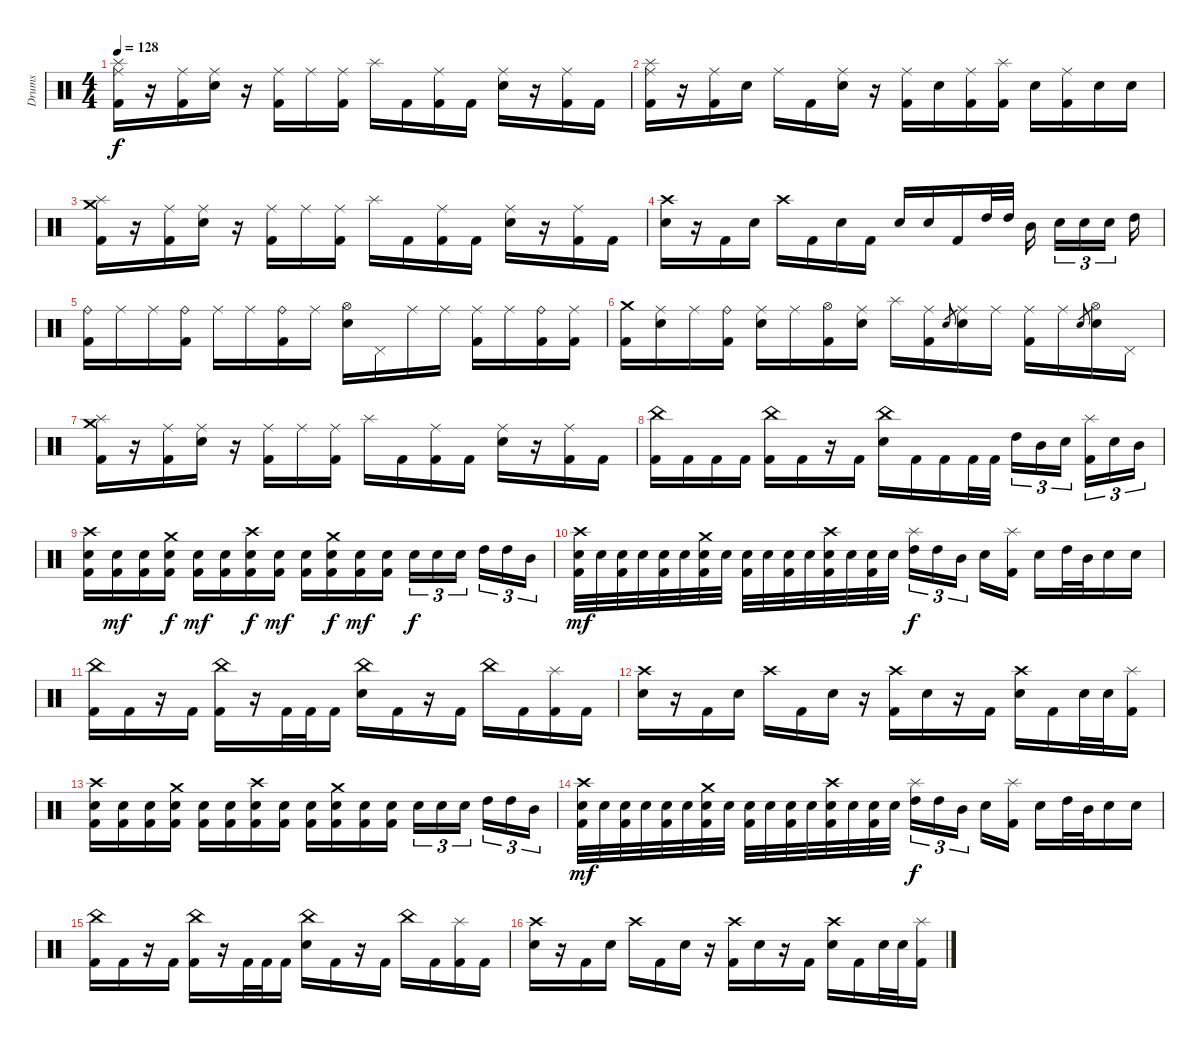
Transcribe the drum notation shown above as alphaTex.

\track ("Drums" "Drums") {instrument percussion}
\staff {score}
\articulation defaults
\ts (4 4)
\tempo 128
\clef neutral
\ks c
("Ride (middle)" "Splash (hit)" "Kick (hit) 2").16{dy f} r.16 ("Ride (middle)" "Kick (hit) 2").16 ("Ride (middle)" "Electric Snare (hit)").16 r.16 ("Ride (middle)" "Kick (hit) 2").16 "Ride (middle)".16 ("Ride (middle)" "Kick (hit) 2").16 "Splash (hit)".16 "Kick (hit) 2".16 ("Ride (middle)" "Kick (hit) 2").16 "Kick (hit) 2".16 ("Ride (middle)" "Electric Snare (hit)").16 r.16 ("Ride (middle)" "Kick (hit) 2").16 "Kick (hit) 2".16 |
("Ride (middle)" "Splash (hit)" "Kick (hit) 2").16 r.16 ("Ride (middle)" "Kick (hit) 2").16 "Electric Snare (hit)".16 "Ride (middle)".16 "Kick (hit) 2".16 ("Ride (middle)" "Electric Snare (hit)").16 r.16 ("Ride (middle)" "Kick (hit) 2").16 "Electric Snare (hit)".16 ("Ride (middle)" "Kick (hit) 2").16 ("Splash (hit)" "Kick (hit) 2").16 "Electric Snare (hit)".16 ("Ride (middle)" "Kick (hit) 2").16 "Electric Snare (hit)".16 "Electric Snare (hit)".16 |
("Crash medium (hit)" "Splash (hit)" "Kick (hit) 2").16 r.16 ("Ride (middle)" "Kick (hit) 2").16 ("Ride (middle)" "Electric Snare (hit)").16 r.16 ("Ride (middle)" "Kick (hit) 2").16 "Ride (middle)".16 ("Ride (middle)" "Kick (hit) 2").16 "Splash (hit)".16 "Kick (hit) 2".16 ("Ride (middle)" "Kick (hit) 2").16 "Kick (hit) 2".16 ("Ride (middle)" "Electric Snare (hit)").16 r.16 ("Ride (middle)" "Kick (hit) 2").16 "Kick (hit) 2".16 |
("Crash high (hit)" "Electric Snare (hit)").16 r.16 "Kick (hit) 2".16 "Electric Snare (hit)".16 "Crash high (hit)".16 "Kick (hit) 2".16 "Electric Snare (hit)".16 "Kick (hit) 2".16 "Electric Snare (hit)".16 "Electric Snare (hit)".16 "Kick (hit) 2".16 "High Tom (hit)".32 "High Tom (hit)".32 "Mid Tom (hit)".16 "Electric Snare (hit)".16{tu (3 2)} "Electric Snare (hit)".16{tu (3 2)} "Electric Snare (hit)".16{tu (3 2)} "High Tom (hit)".16 |
("Ride (bell)" "Kick (hit) 2").16 "Ride (middle)".16 "Ride (middle)".16 ("Ride (bell)" "Kick (hit) 2").16 "Ride (middle)".16 "Ride (middle)".16 ("Ride (bell)" "Kick (hit) 2").16 "Ride (middle)".16 ("Hi-Hat (open)" "Electric Snare (hit)").16 "Pedal Hi-Hat (hit)".16 "Ride (middle)".16 "Ride (middle)".16 ("Ride (middle)" "Kick (hit) 2").16 "Ride (middle)".16 ("Ride (bell)" "Kick (hit) 2").16 ("Ride (middle)" "Kick (hit) 2").16 |
("Crash medium (hit)" "Kick (hit) 2").16 ("Ride (middle)" "Electric Snare (hit)").16 "Ride (middle)".16 ("Ride (bell)" "Kick (hit) 2").16 ("Ride (middle)" "Electric Snare (hit)").16 "Ride (middle)".16 ("Hi-Hat (open)" "Kick (hit) 2").16 ("Ride (middle)" "Electric Snare (hit)").16 "Splash (hit)".16 ("Ride (middle)" "Kick (hit) 2").16 "Electric Snare (hit)"{h}.8{gr} ("Ride (middle)" "Electric Snare (hit)").16 "Ride (middle)".16 ("Ride (middle)" "Kick (hit) 2").16 "Ride (middle)".16 "Electric Snare (hit)"{h}.8{gr} ("Hi-Hat (open)" "Electric Snare (hit)").16 "Pedal Hi-Hat (hit)".16 |
("Crash medium (hit)" "Splash (hit)" "Kick (hit) 2").16 r.16 ("Ride (middle)" "Kick (hit) 2").16 ("Ride (middle)" "Electric Snare (hit)").16 r.16 ("Ride (middle)" "Kick (hit) 2").16 "Ride (middle)".16 ("Ride (middle)" "Kick (hit) 2").16 "Splash (hit)".16 "Kick (hit) 2".16 ("Ride (middle)" "Kick (hit) 2").16 "Kick (hit) 2".16 ("Ride (middle)" "Electric Snare (hit)").16 r.16 ("Ride (middle)" "Kick (hit) 2").16 "Kick (hit) 2".16 |
("China (hit)" "Kick (hit) 2").16 "Kick (hit) 2".16 "Kick (hit) 2".16 "Kick (hit) 2".16 ("China (hit)" "Kick (hit) 2").16 "Kick (hit) 2".16 r.16 "Kick (hit) 2".16 ("China (hit)" "Electric Snare (hit)").16 "Kick (hit) 2".16 "Kick (hit) 2".16 "Kick (hit) 2".32 "Kick (hit) 2".32 "High Tom (hit)".16{tu (3 2)} "Mid Tom (hit)".16{tu (3 2)} "Electric Snare (hit)".16{tu (3 2)} ("Splash (hit)" "Kick (hit) 2").16{tu (3 2)} "Electric Snare (hit)".16{tu (3 2)} "Mid Tom (hit)".16{tu (3 2)} |
("Crash high (hit)" "Electric Snare (hit)" "Kick (hit) 2").16 ("Electric Snare (hit)" "Kick (hit) 2").16{dy mf} ("Electric Snare (hit)" "Kick (hit) 2").16 ("Crash medium (hit)" "Electric Snare (hit)" "Kick (hit) 2").16{dy f} ("Electric Snare (hit)" "Kick (hit) 2").16{dy mf} ("Electric Snare (hit)" "Kick (hit) 2").16 ("Crash high (hit)" "Electric Snare (hit)" "Kick (hit) 2").16{dy f} ("Electric Snare (hit)" "Kick (hit) 2").16{dy mf} ("Electric Snare (hit)" "Kick (hit) 2").16 ("Crash medium (hit)" "Electric Snare (hit)" "Kick (hit) 2").16{dy f} ("Electric Snare (hit)" "Kick (hit) 2").16{dy mf} ("Electric Snare (hit)" "Kick (hit) 2").16 "Electric Snare (hit)".16{tu (3 2) dy f} "Electric Snare (hit)".16{tu (3 2)} "Electric Snare (hit)".16{tu (3 2)} "High Tom (hit)".16{tu (3 2)} "High Tom (hit)".16{tu (3 2)} "Mid Tom (hit)".16{tu (3 2)} |
("Crash high (hit)" "Electric Snare (hit)" "Kick (hit) 2").32{dy mf} "Electric Snare (hit)".32 ("Electric Snare (hit)" "Kick (hit) 2").32 "Electric Snare (hit)".32 ("Electric Snare (hit)" "Kick (hit) 2").32 "Electric Snare (hit)".32 ("Crash medium (hit)" "Electric Snare (hit)" "Kick (hit) 2").32 "Electric Snare (hit)".32 ("Electric Snare (hit)" "Kick (hit) 2").32 "Electric Snare (hit)".32 ("Electric Snare (hit)" "Kick (hit) 2").32 "Electric Snare (hit)".32 ("Crash high (hit)" "Electric Snare (hit)" "Kick (hit) 2").32 "Electric Snare (hit)".32 ("Electric Snare (hit)" "Kick (hit) 2").32 "Electric Snare (hit)".32 ("Splash (hit)" "High Tom (hit)").16{tu (3 2) dy f} "High Tom (hit)".16{tu (3 2)} "Mid Tom (hit)".16{tu (3 2)} "Electric Snare (hit)".16 ("Splash (hit)" "Kick (hit) 2").16 "Electric Snare (hit)".16 "High Tom (hit)".32 "Mid Tom (hit)".32 "Electric Snare (hit)".16 "Electric Snare (hit)".16 |
("China (hit)" "Kick (hit) 2").16 "Kick (hit) 2".16 r.16 "Kick (hit) 2".16 ("China (hit)" "Kick (hit) 2").16 r.16 "Kick (hit) 2".32 "Kick (hit) 2".32 "Kick (hit) 2".16 ("China (hit)" "Electric Snare (hit)").16 "Kick (hit) 2".16 r.16 "Kick (hit) 2".16 "China (hit)".16 "Kick (hit) 2".16 ("Splash (hit)" "Kick (hit) 2").16 "Kick (hit) 2".16 |
("Crash high (hit)" "Electric Snare (hit)").16 r.16 "Kick (hit) 2".16 "Electric Snare (hit)".16 "Crash high (hit)".16 "Kick (hit) 2".16 "Electric Snare (hit)".16 r.16 ("Crash high (hit)" "Kick (hit) 2").16 "Electric Snare (hit)".16 r.16 "Kick (hit) 2".16 ("Crash high (hit)" "Electric Snare (hit)").16 "Kick (hit) 2".16 "Electric Snare (hit)".32 "Electric Snare (hit)".32 ("Splash (hit)" "Kick (hit) 2").16 |
("Crash high (hit)" "Electric Snare (hit)" "Kick (hit) 2").16 ("Electric Snare (hit)" "Kick (hit) 2").16 ("Electric Snare (hit)" "Kick (hit) 2").16 ("Crash medium (hit)" "Electric Snare (hit)" "Kick (hit) 2").16 ("Electric Snare (hit)" "Kick (hit) 2").16 ("Electric Snare (hit)" "Kick (hit) 2").16 ("Crash high (hit)" "Electric Snare (hit)" "Kick (hit) 2").16 ("Electric Snare (hit)" "Kick (hit) 2").16 ("Electric Snare (hit)" "Kick (hit) 2").16 ("Crash medium (hit)" "Electric Snare (hit)" "Kick (hit) 2").16 ("Electric Snare (hit)" "Kick (hit) 2").16 ("Electric Snare (hit)" "Kick (hit) 2").16 "Electric Snare (hit)".16{tu (3 2)} "Electric Snare (hit)".16{tu (3 2)} "Electric Snare (hit)".16{tu (3 2)} "High Tom (hit)".16{tu (3 2)} "High Tom (hit)".16{tu (3 2)} "Mid Tom (hit)".16{tu (3 2)} |
("Crash high (hit)" "Electric Snare (hit)" "Kick (hit) 2").32{dy mf} "Electric Snare (hit)".32 ("Electric Snare (hit)" "Kick (hit) 2").32 "Electric Snare (hit)".32 ("Electric Snare (hit)" "Kick (hit) 2").32 "Electric Snare (hit)".32 ("Crash medium (hit)" "Electric Snare (hit)" "Kick (hit) 2").32 "Electric Snare (hit)".32 ("Electric Snare (hit)" "Kick (hit) 2").32 "Electric Snare (hit)".32 ("Electric Snare (hit)" "Kick (hit) 2").32 "Electric Snare (hit)".32 ("Crash high (hit)" "Electric Snare (hit)" "Kick (hit) 2").32 "Electric Snare (hit)".32 ("Electric Snare (hit)" "Kick (hit) 2").32 "Electric Snare (hit)".32 ("Splash (hit)" "High Tom (hit)").16{tu (3 2) dy f} "High Tom (hit)".16{tu (3 2)} "Mid Tom (hit)".16{tu (3 2)} "Electric Snare (hit)".16 ("Splash (hit)" "Kick (hit) 2").16 "Electric Snare (hit)".16 "High Tom (hit)".32 "Mid Tom (hit)".32 "Electric Snare (hit)".16 "Electric Snare (hit)".16 |
("China (hit)" "Kick (hit) 2").16 "Kick (hit) 2".16 r.16 "Kick (hit) 2".16 ("China (hit)" "Kick (hit) 2").16 r.16 "Kick (hit) 2".32 "Kick (hit) 2".32 "Kick (hit) 2".16 ("China (hit)" "Electric Snare (hit)").16 "Kick (hit) 2".16 r.16 "Kick (hit) 2".16 "China (hit)".16 "Kick (hit) 2".16 ("Splash (hit)" "Kick (hit) 2").16 "Kick (hit) 2".16 |
("Crash high (hit)" "Electric Snare (hit)").16 r.16 "Kick (hit) 2".16 "Electric Snare (hit)".16 "Crash high (hit)".16 "Kick (hit) 2".16 "Electric Snare (hit)".16 r.16 ("Crash high (hit)" "Kick (hit) 2").16 "Electric Snare (hit)".16 r.16 "Kick (hit) 2".16 ("Crash high (hit)" "Electric Snare (hit)").16 "Kick (hit) 2".16 "Electric Snare (hit)".32 "Electric Snare (hit)".32 ("Splash (hit)" "Kick (hit) 2").16
